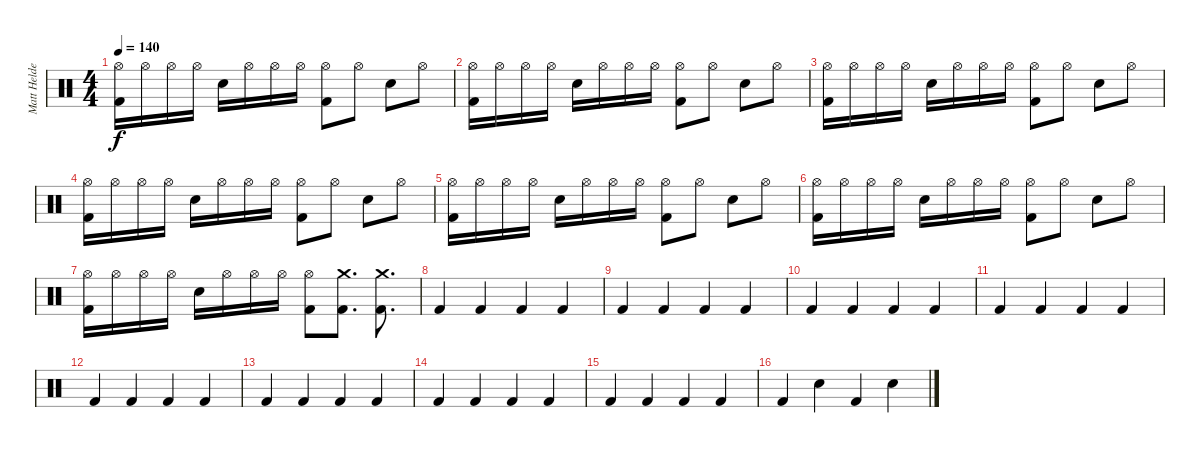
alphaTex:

\track ("Matt Helders" "Matt Helde") {instrument percussion}
\staff {score}
\articulation defaults
\ts (4 4)
\tempo 140
\clef neutral
\ks c
("Hi-Hat (open)" "Kick (hit) 2").16{dy f} "Hi-Hat (open)".16 "Hi-Hat (open)".16 "Hi-Hat (open)".16 "Snare (hit) 2".16 "Hi-Hat (open)".16 "Hi-Hat (open)".16 "Hi-Hat (open)".16 ("Hi-Hat (open)" "Kick (hit) 2").8 "Hi-Hat (open)".8 "Snare (hit) 2".8 "Hi-Hat (open)".8 |
("Hi-Hat (open)" "Kick (hit) 2").16 "Hi-Hat (open)".16 "Hi-Hat (open)".16 "Hi-Hat (open)".16 "Snare (hit) 2".16 "Hi-Hat (open)".16 "Hi-Hat (open)".16 "Hi-Hat (open)".16 ("Hi-Hat (open)" "Kick (hit) 2").8 "Hi-Hat (open)".8 "Snare (hit) 2".8 "Hi-Hat (open)".8 |
("Hi-Hat (open)" "Kick (hit) 2").16 "Hi-Hat (open)".16 "Hi-Hat (open)".16 "Hi-Hat (open)".16 "Snare (hit) 2".16 "Hi-Hat (open)".16 "Hi-Hat (open)".16 "Hi-Hat (open)".16 ("Hi-Hat (open)" "Kick (hit) 2").8 "Hi-Hat (open)".8 "Snare (hit) 2".8 "Hi-Hat (open)".8 |
("Hi-Hat (open)" "Kick (hit) 2").16 "Hi-Hat (open)".16 "Hi-Hat (open)".16 "Hi-Hat (open)".16 "Snare (hit) 2".16 "Hi-Hat (open)".16 "Hi-Hat (open)".16 "Hi-Hat (open)".16 ("Hi-Hat (open)" "Kick (hit) 2").8 "Hi-Hat (open)".8 "Snare (hit) 2".8 "Hi-Hat (open)".8 |
("Hi-Hat (open)" "Kick (hit) 2").16 "Hi-Hat (open)".16 "Hi-Hat (open)".16 "Hi-Hat (open)".16 "Snare (hit) 2".16 "Hi-Hat (open)".16 "Hi-Hat (open)".16 "Hi-Hat (open)".16 ("Hi-Hat (open)" "Kick (hit) 2").8 "Hi-Hat (open)".8 "Snare (hit) 2".8 "Hi-Hat (open)".8 |
("Hi-Hat (open)" "Kick (hit) 2").16 "Hi-Hat (open)".16 "Hi-Hat (open)".16 "Hi-Hat (open)".16 "Snare (hit) 2".16 "Hi-Hat (open)".16 "Hi-Hat (open)".16 "Hi-Hat (open)".16 ("Hi-Hat (open)" "Kick (hit) 2").8 "Hi-Hat (open)".8 "Snare (hit) 2".8 "Hi-Hat (open)".8 |
("Hi-Hat (open)" "Kick (hit) 2").16 "Hi-Hat (open)".16 "Hi-Hat (open)".16 "Hi-Hat (open)".16 "Snare (hit) 2".16 "Hi-Hat (open)".16 "Hi-Hat (open)".16 "Hi-Hat (open)".16 ("Hi-Hat (open)" "Kick (hit) 2").8 ("Crash medium (hit)" "Kick (hit) 2").8{d} ("Crash medium (hit)" "Kick (hit) 2").8{d} |
"Kick (hit) 2".4 "Kick (hit) 2".4 "Kick (hit) 2".4 "Kick (hit) 2".4 |
"Kick (hit) 2".4 "Kick (hit) 2".4 "Kick (hit) 2".4 "Kick (hit) 2".4 |
"Kick (hit) 2".4 "Kick (hit) 2".4 "Kick (hit) 2".4 "Kick (hit) 2".4 |
"Kick (hit) 2".4 "Kick (hit) 2".4 "Kick (hit) 2".4 "Kick (hit) 2".4 |
"Kick (hit) 2".4 "Kick (hit) 2".4 "Kick (hit) 2".4 "Kick (hit) 2".4 |
"Kick (hit) 2".4 "Kick (hit) 2".4 "Kick (hit) 2".4 "Kick (hit) 2".4 |
"Kick (hit) 2".4 "Kick (hit) 2".4 "Kick (hit) 2".4 "Kick (hit) 2".4 |
"Kick (hit) 2".4 "Kick (hit) 2".4 "Kick (hit) 2".4 "Kick (hit) 2".4 |
"Kick (hit) 2".4 "Snare (hit) 2".4 "Kick (hit) 2".4 "Snare (hit) 2".4
